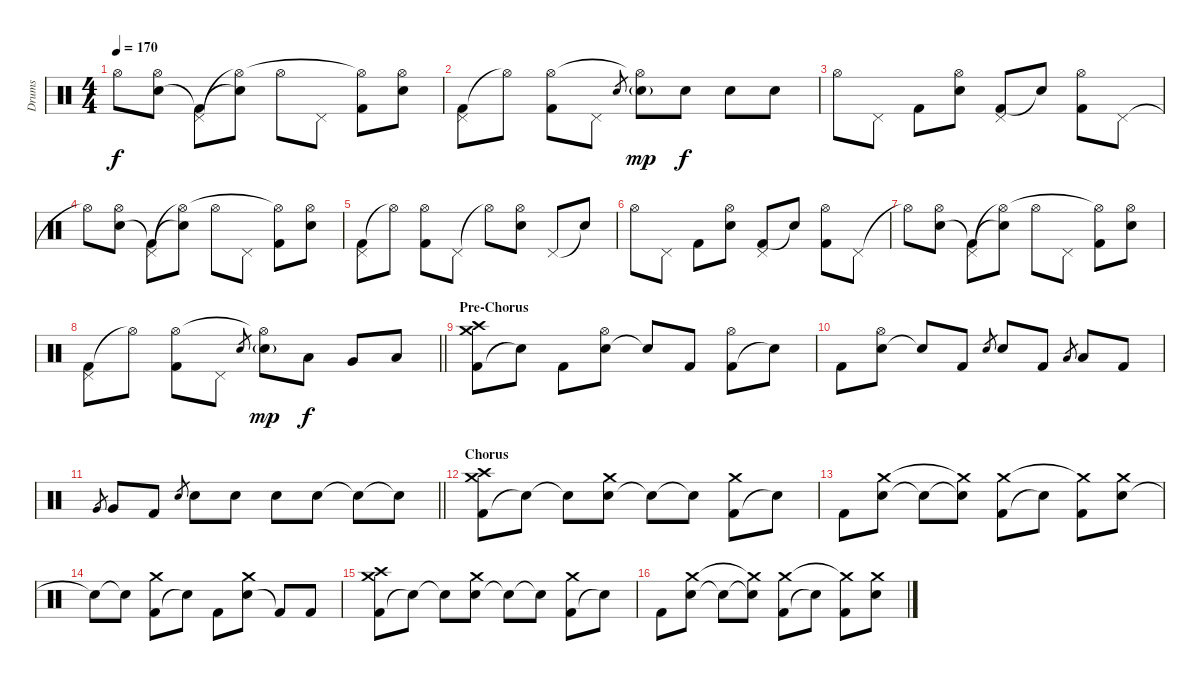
\track ("Drums" "Drums") {instrument percussion}
\staff {score}
\articulation defaults
\ts (4 4)
\tempo 170
\clef neutral
\ks c "Hi-Hat (open)"{t}.8{dy f}
("Electric Snare (hit)" "Hi-Hat (open)").8 ("Kick (hit) 2"{t} "Pedal Hi-Hat (hit)").8 ("Electric Snare (hit)"{t} "Hi-Hat (open)"{t}).8 "Hi-Hat (open)".8 "Pedal Hi-Hat (hit)".8 ("Kick (hit) 2" "Hi-Hat (open)"{t}).8 ("Electric Snare (hit)" "Hi-Hat (open)").8 |
("Kick (hit) 2" "Pedal Hi-Hat (hit)").8 "Hi-Hat (open)"{t}.8 ("Kick (hit) 2" "Hi-Hat (open)").8 "Pedal Hi-Hat (hit)".8 "Electric Snare (hit)".8{gr} ("Electric Snare (hit)"{g} "Hi-Hat (open)"{t}).8{dy mp} "Electric Snare (hit)".8{dy f} "Electric Snare (hit)".8 "Electric Snare (hit)".8 |
"Hi-Hat (open)".8 "Pedal Hi-Hat (hit)".8 "Kick (hit) 2".8 ("Electric Snare (hit)" "Hi-Hat (open)").8 ("Kick (hit) 2" "Pedal Hi-Hat (hit)").8 "Snare (hit)"{t}.8 ("Kick (hit) 2" "Hi-Hat (open)").8 "Pedal Hi-Hat (hit)".8 |
"Hi-Hat (open)"{t}.8 ("Electric Snare (hit)" "Hi-Hat (open)").8 ("Kick (hit) 2"{t} "Pedal Hi-Hat (hit)").8 ("Electric Snare (hit)"{t} "Hi-Hat (open)"{t}).8 "Hi-Hat (open)".8 "Pedal Hi-Hat (hit)".8 ("Kick (hit) 2" "Hi-Hat (open)"{t}).8 ("Electric Snare (hit)" "Hi-Hat (open)").8 |
("Kick (hit) 2" "Pedal Hi-Hat (hit)").8 "Hi-Hat (open)"{t}.8 ("Kick (hit) 2" "Hi-Hat (open)").8 "Pedal Hi-Hat (hit)".8 "Hi-Hat (open)"{t}.8 ("Electric Snare (hit)" "Hi-Hat (open)").8 "Pedal Hi-Hat (hit)".8 "Snare (hit)"{t}.8 |
"Hi-Hat (open)".8 "Pedal Hi-Hat (hit)".8 "Kick (hit) 2".8 ("Electric Snare (hit)" "Hi-Hat (open)").8 ("Kick (hit) 2" "Pedal Hi-Hat (hit)").8 "Snare (hit)"{t}.8 ("Kick (hit) 2" "Hi-Hat (open)").8 "Pedal Hi-Hat (hit)".8 |
"Hi-Hat (open)"{t}.8 ("Electric Snare (hit)" "Hi-Hat (open)").8 ("Kick (hit) 2"{t} "Pedal Hi-Hat (hit)").8 ("Electric Snare (hit)"{t} "Hi-Hat (open)"{t}).8 "Hi-Hat (open)".8 "Pedal Hi-Hat (hit)".8 ("Kick (hit) 2" "Hi-Hat (open)"{t}).8 ("Electric Snare (hit)" "Hi-Hat (open)").8 |
\barLineRight lightlight
("Kick (hit) 2" "Pedal Hi-Hat (hit)").8 "Hi-Hat (open)"{t}.8 ("Kick (hit) 2" "Hi-Hat (open)").8 "Pedal Hi-Hat (hit)".8 "Electric Snare (hit)".8{gr} ("Electric Snare (hit)"{g} "Hi-Hat (open)"{t}).8{dy mp} "Low Tom (hit)".8{dy f} "Very Low Tom (hit)".8 "Low Floor Tom (hit)".8 |
\section ("" "Pre-Chorus")
("Kick (hit) 2" "Crash medium (hit)" "Crash high (hit)").8 "Snare (hit)"{t}.8 "Kick (hit) 2".8 ("Electric Snare (hit)" "Hi-Hat (open)").8 "Electric Snare (hit)"{t}.8 "Kick (hit) 2".8 ("Kick (hit) 2" "Hi-Hat (open)").8 "Snare (hit)"{t}.8 |
"Kick (hit) 2".8 ("Electric Snare (hit)" "Hi-Hat (open)").8 "Snare (hit)"{t}.8 "Kick (hit) 2".8 "Electric Snare (hit)".8{gr} "Electric Snare (hit)".8 "Kick (hit) 2".8 "Low Tom (hit)".8{gr} "Low Tom (hit)".8 "Kick (hit) 2".8 |
\barLineRight lightlight "Very Low Tom (hit)".8{gr} "Very Low Tom (hit)".8 "Kick (hit) 2".8 "Electric Snare (hit)".8{gr} "Electric Snare (hit)".8 "Electric Snare (hit)".8 "Electric Snare (hit)".8 "Electric Snare (hit)".8 "Snare (hit)"{t}.8 "Snare (hit)"{t}.8
|
\section ("" "Chorus")
("Kick (hit) 2" "Crash medium (hit)" "Crash high (hit)").8 "Snare (hit)"{t}.8 "Snare (hit)"{t}.8 ("Electric Snare (hit)" "Crash medium (hit)").8 "Snare (hit)"{t}.8 "Snare (hit)"{t}.8 ("Kick (hit) 2" "Crash medium (hit)").8 "Snare (hit)"{t}.8 |
"Kick (hit) 2".8 ("Electric Snare (hit)" "Crash medium (hit)").8 "Snare (hit)"{t}.8 ("Snare (hit)"{t} "Crash medium (hit)"{t}).8 ("Kick (hit) 2" "Crash medium (hit)").8 "Snare (hit)"{t}.8 ("Kick (hit) 2" "Crash medium (hit)"{t}).8 ("Electric Snare (hit)" "Crash medium (hit)").8 |
"Snare (hit)"{t}.8 "Snare (hit)"{t}.8 ("Kick (hit) 2" "Crash medium (hit)").8 "Snare (hit)"{t}.8 "Kick (hit) 2".8 ("Electric Snare (hit)" "Crash medium (hit)").8 "Kick (hit) 2"{t}.8 "Kick (hit) 2".8 |
("Kick (hit) 2" "Crash medium (hit)" "Crash high (hit)").8 "Snare (hit)"{t}.8 "Snare (hit)"{t}.8 ("Electric Snare (hit)" "Crash medium (hit)").8 "Snare (hit)"{t}.8 "Snare (hit)"{t}.8 ("Kick (hit) 2" "Crash medium (hit)").8 "Snare (hit)"{t}.8 |
"Kick (hit) 2".8 ("Electric Snare (hit)" "Crash medium (hit)").8 "Snare (hit)"{t}.8 ("Snare (hit)"{t} "Crash medium (hit)"{t}).8 ("Kick (hit) 2" "Crash medium (hit)").8 "Snare (hit)"{t}.8 ("Kick (hit) 2" "Crash medium (hit)"{t}).8 ("Electric Snare (hit)" "Crash medium (hit)").8
